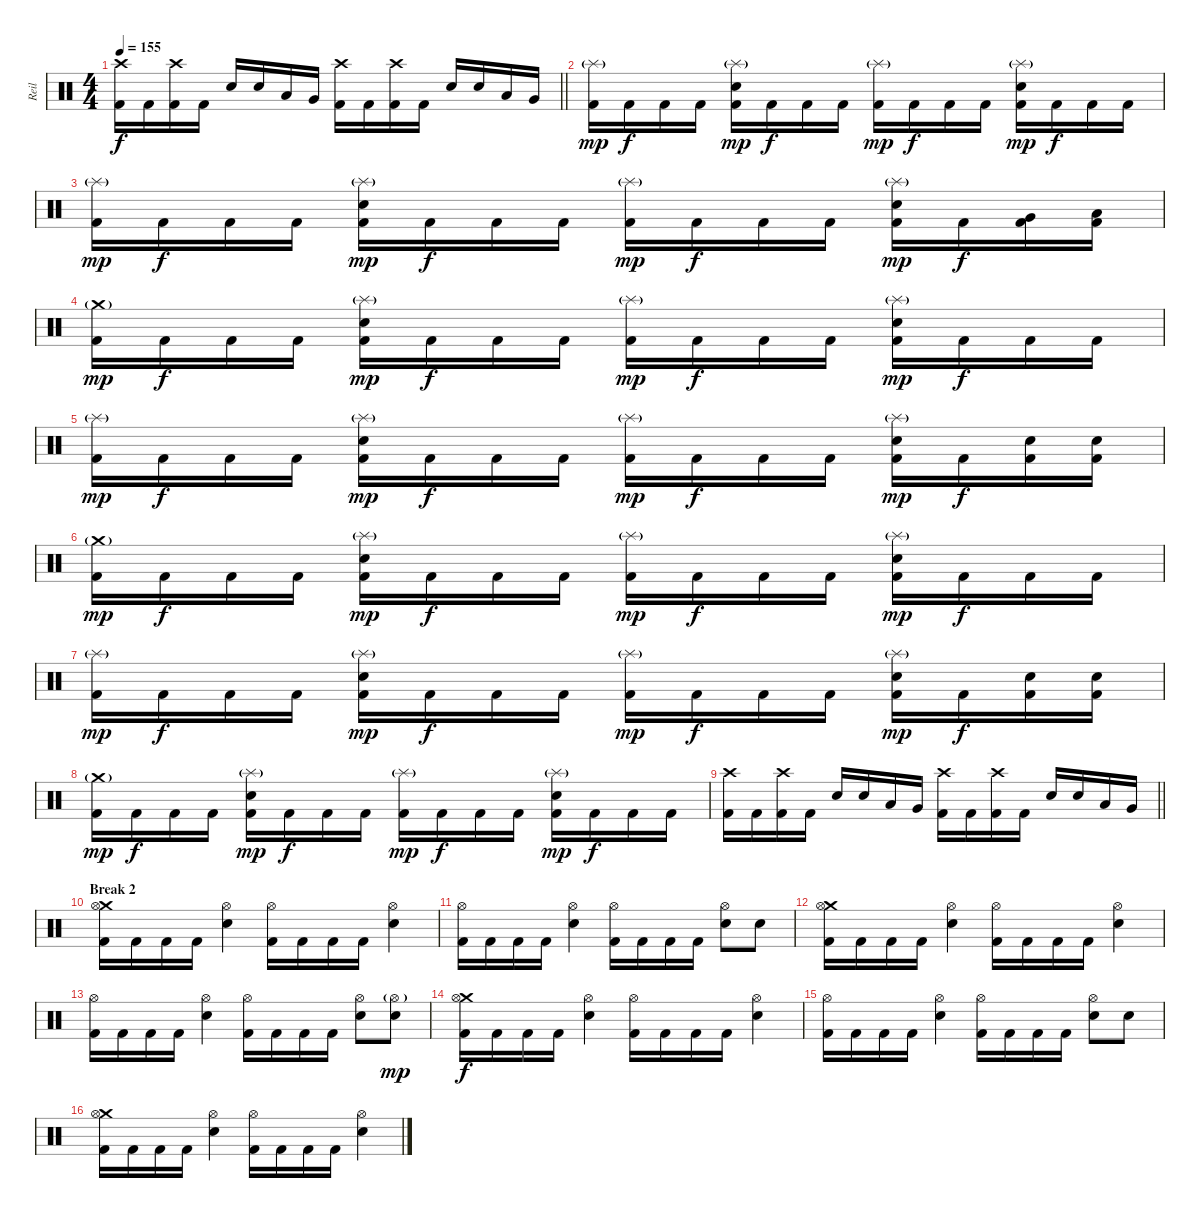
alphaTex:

\track ("Reil" "Reil") {instrument percussion}
\staff {score}
\articulation defaults
\ts (4 4)
\tempo 155
\clef neutral
\barLineRight lightlight
\ks c
("Crash high (hit)" "Kick (hit) 2").16{dy f} "Kick (hit) 2".16 ("Crash high (hit)" "Kick (hit) 2").16 "Kick (hit) 2".16 "Electric Snare (hit)".16 "Electric Snare (hit)".16 "Low Tom (hit)".16 "Very Low Tom (hit)".16 ("Crash high (hit)" "Kick (hit) 2").16 "Kick (hit) 2".16 ("Crash high (hit)" "Kick (hit) 2").16 "Kick (hit) 2".16 "Electric Snare (hit)".16 "Electric Snare (hit)".16 "Low Tom (hit)".16 "Very Low Tom (hit)".16 |
("Splash (hit)"{g} "Kick (hit) 2").16{dy mp} "Kick (hit) 2".16{dy f} "Kick (hit) 2".16 "Kick (hit) 2".16 ("Splash (hit)"{g} "Electric Snare (hit)" "Kick (hit) 2").16{dy mp} "Kick (hit) 2".16{dy f} "Kick (hit) 2".16 "Kick (hit) 2".16 ("Splash (hit)"{g} "Kick (hit) 2").16{dy mp} "Kick (hit) 2".16{dy f} "Kick (hit) 2".16 "Kick (hit) 2".16 ("Splash (hit)"{g} "Electric Snare (hit)" "Kick (hit) 2").16{dy mp} "Kick (hit) 2".16{dy f} "Kick (hit) 2".16 "Kick (hit) 2".16 |
("Splash (hit)"{g} "Kick (hit) 2").16{dy mp} "Kick (hit) 2".16{dy f} "Kick (hit) 2".16 "Kick (hit) 2".16 ("Splash (hit)"{g} "Electric Snare (hit)" "Kick (hit) 2").16{dy mp} "Kick (hit) 2".16{dy f} "Kick (hit) 2".16 "Kick (hit) 2".16 ("Splash (hit)"{g} "Kick (hit) 2").16{dy mp} "Kick (hit) 2".16{dy f} "Kick (hit) 2".16 "Kick (hit) 2".16 ("Splash (hit)"{g} "Electric Snare (hit)" "Kick (hit) 2").16{dy mp} "Kick (hit) 2".16{dy f} ("Very Low Tom (hit)" "Kick (hit) 2").16 ("Low Floor Tom (hit)" "Kick (hit) 2").16 |
("Crash medium (hit)"{g} "Kick (hit) 2").16{dy mp} "Kick (hit) 2".16{dy f} "Kick (hit) 2".16 "Kick (hit) 2".16 ("Splash (hit)"{g} "Electric Snare (hit)" "Kick (hit) 2").16{dy mp} "Kick (hit) 2".16{dy f} "Kick (hit) 2".16 "Kick (hit) 2".16 ("Splash (hit)"{g} "Kick (hit) 2").16{dy mp} "Kick (hit) 2".16{dy f} "Kick (hit) 2".16 "Kick (hit) 2".16 ("Splash (hit)"{g} "Electric Snare (hit)" "Kick (hit) 2").16{dy mp} "Kick (hit) 2".16{dy f} "Kick (hit) 2".16 "Kick (hit) 2".16 |
("Splash (hit)"{g} "Kick (hit) 2").16{dy mp} "Kick (hit) 2".16{dy f} "Kick (hit) 2".16 "Kick (hit) 2".16 ("Splash (hit)"{g} "Electric Snare (hit)" "Kick (hit) 2").16{dy mp} "Kick (hit) 2".16{dy f} "Kick (hit) 2".16 "Kick (hit) 2".16 ("Splash (hit)"{g} "Kick (hit) 2").16{dy mp} "Kick (hit) 2".16{dy f} "Kick (hit) 2".16 "Kick (hit) 2".16 ("Splash (hit)"{g} "Electric Snare (hit)" "Kick (hit) 2").16{dy mp} "Kick (hit) 2".16{dy f} ("Electric Snare (hit)" "Kick (hit) 2").16 ("Electric Snare (hit)" "Kick (hit) 2").16 |
("Crash medium (hit)"{g} "Kick (hit) 2").16{dy mp} "Kick (hit) 2".16{dy f} "Kick (hit) 2".16 "Kick (hit) 2".16 ("Splash (hit)"{g} "Electric Snare (hit)" "Kick (hit) 2").16{dy mp} "Kick (hit) 2".16{dy f} "Kick (hit) 2".16 "Kick (hit) 2".16 ("Splash (hit)"{g} "Kick (hit) 2").16{dy mp} "Kick (hit) 2".16{dy f} "Kick (hit) 2".16 "Kick (hit) 2".16 ("Splash (hit)"{g} "Electric Snare (hit)" "Kick (hit) 2").16{dy mp} "Kick (hit) 2".16{dy f} "Kick (hit) 2".16 "Kick (hit) 2".16 |
("Splash (hit)"{g} "Kick (hit) 2").16{dy mp} "Kick (hit) 2".16{dy f} "Kick (hit) 2".16 "Kick (hit) 2".16 ("Splash (hit)"{g} "Electric Snare (hit)" "Kick (hit) 2").16{dy mp} "Kick (hit) 2".16{dy f} "Kick (hit) 2".16 "Kick (hit) 2".16 ("Splash (hit)"{g} "Kick (hit) 2").16{dy mp} "Kick (hit) 2".16{dy f} "Kick (hit) 2".16 "Kick (hit) 2".16 ("Splash (hit)"{g} "Electric Snare (hit)" "Kick (hit) 2").16{dy mp} "Kick (hit) 2".16{dy f} ("Electric Snare (hit)" "Kick (hit) 2").16 ("Electric Snare (hit)" "Kick (hit) 2").16 |
("Crash medium (hit)"{g} "Kick (hit) 2").16{dy mp} "Kick (hit) 2".16{dy f} "Kick (hit) 2".16 "Kick (hit) 2".16 ("Splash (hit)"{g} "Electric Snare (hit)" "Kick (hit) 2").16{dy mp} "Kick (hit) 2".16{dy f} "Kick (hit) 2".16 "Kick (hit) 2".16 ("Splash (hit)"{g} "Kick (hit) 2").16{dy mp} "Kick (hit) 2".16{dy f} "Kick (hit) 2".16 "Kick (hit) 2".16 ("Splash (hit)"{g} "Electric Snare (hit)" "Kick (hit) 2").16{dy mp} "Kick (hit) 2".16{dy f} "Kick (hit) 2".16 "Kick (hit) 2".16 |
\barLineRight lightlight
("Crash high (hit)" "Kick (hit) 2").16 "Kick (hit) 2".16 ("Crash high (hit)" "Kick (hit) 2").16 "Kick (hit) 2".16 "Electric Snare (hit)".16 "Electric Snare (hit)".16 "Low Tom (hit)".16 "Very Low Tom (hit)".16 ("Crash high (hit)" "Kick (hit) 2").16 "Kick (hit) 2".16 ("Crash high (hit)" "Kick (hit) 2").16 "Kick (hit) 2".16 "Electric Snare (hit)".16 "Electric Snare (hit)".16 "Low Tom (hit)".16 "Very Low Tom (hit)".16 |
\section ("" "Break 2")
("Crash medium (hit)" "Hi-Hat (open)" "Kick (hit) 2").16 "Kick (hit) 2".16 "Kick (hit) 2".16 "Kick (hit) 2".16 ("Hi-Hat (open)" "Electric Snare (hit)").4 ("Hi-Hat (open)" "Kick (hit) 2").16 "Kick (hit) 2".16 "Kick (hit) 2".16 "Kick (hit) 2".16 ("Hi-Hat (open)" "Electric Snare (hit)").4 |
("Hi-Hat (open)" "Kick (hit) 2").16 "Kick (hit) 2".16 "Kick (hit) 2".16 "Kick (hit) 2".16 ("Hi-Hat (open)" "Electric Snare (hit)").4 ("Hi-Hat (open)" "Kick (hit) 2").16 "Kick (hit) 2".16 "Kick (hit) 2".16 "Kick (hit) 2".16 ("Hi-Hat (open)" "Electric Snare (hit)").8 "Electric Snare (hit)".8 |
("Crash medium (hit)" "Hi-Hat (open)" "Kick (hit) 2").16 "Kick (hit) 2".16 "Kick (hit) 2".16 "Kick (hit) 2".16 ("Hi-Hat (open)" "Electric Snare (hit)").4 ("Hi-Hat (open)" "Kick (hit) 2").16 "Kick (hit) 2".16 "Kick (hit) 2".16 "Kick (hit) 2".16 ("Hi-Hat (open)" "Electric Snare (hit)").4 |
("Hi-Hat (open)" "Kick (hit) 2").16 "Kick (hit) 2".16 "Kick (hit) 2".16 "Kick (hit) 2".16 ("Hi-Hat (open)" "Electric Snare (hit)").4 ("Hi-Hat (open)" "Kick (hit) 2").16 "Kick (hit) 2".16 "Kick (hit) 2".16 "Kick (hit) 2".16 ("Hi-Hat (open)" "Electric Snare (hit)").8 ("Hi-Hat (open)"{g} "Electric Snare (hit)").8{dy mp} |
("Crash medium (hit)" "Hi-Hat (open)" "Kick (hit) 2").16{dy f} "Kick (hit) 2".16 "Kick (hit) 2".16 "Kick (hit) 2".16 ("Hi-Hat (open)" "Electric Snare (hit)").4 ("Hi-Hat (open)" "Kick (hit) 2").16 "Kick (hit) 2".16 "Kick (hit) 2".16 "Kick (hit) 2".16 ("Hi-Hat (open)" "Electric Snare (hit)").4 |
("Hi-Hat (open)" "Kick (hit) 2").16 "Kick (hit) 2".16 "Kick (hit) 2".16 "Kick (hit) 2".16 ("Hi-Hat (open)" "Electric Snare (hit)").4 ("Hi-Hat (open)" "Kick (hit) 2").16 "Kick (hit) 2".16 "Kick (hit) 2".16 "Kick (hit) 2".16 ("Hi-Hat (open)" "Electric Snare (hit)").8 "Electric Snare (hit)".8 |
("Crash medium (hit)" "Hi-Hat (open)" "Kick (hit) 2").16 "Kick (hit) 2".16 "Kick (hit) 2".16 "Kick (hit) 2".16 ("Hi-Hat (open)" "Electric Snare (hit)").4 ("Hi-Hat (open)" "Kick (hit) 2").16 "Kick (hit) 2".16 "Kick (hit) 2".16 "Kick (hit) 2".16 ("Hi-Hat (open)" "Electric Snare (hit)").4
